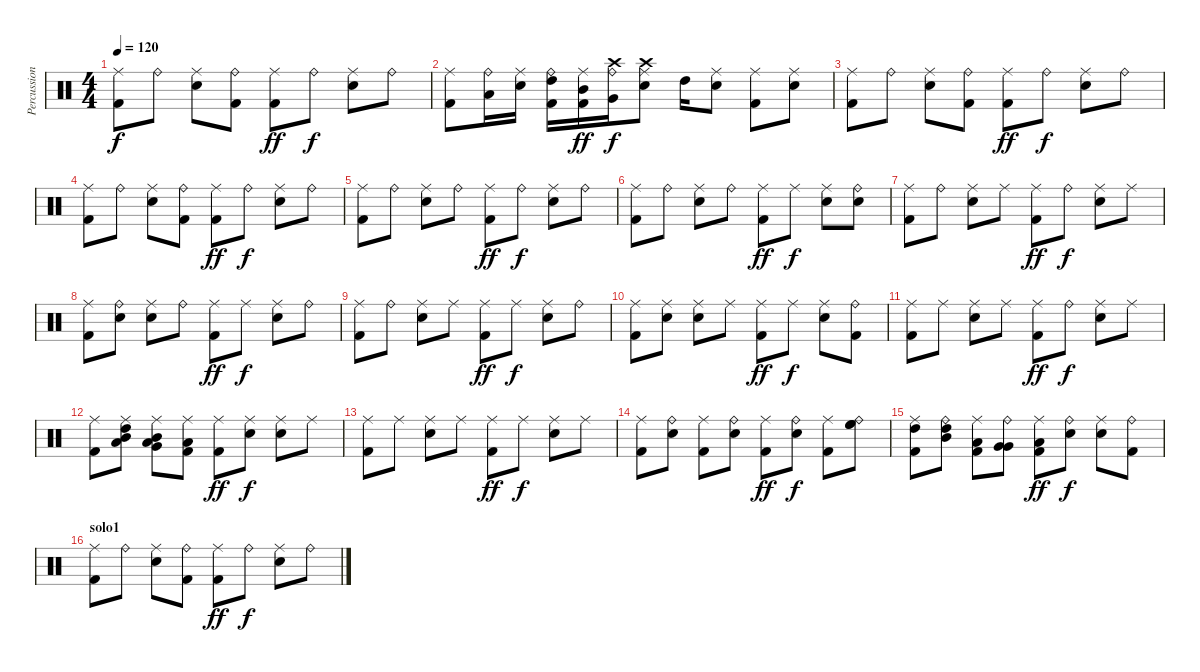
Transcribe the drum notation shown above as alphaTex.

\track ("Percussioni" "Percussion") {instrument percussion}
\staff {score}
\articulation defaults
\ts (4 4)
\tempo 120
\clef neutral
\ks c
("Kick (hit) 2" "Ride (middle)").8{dy f} "Ride (bell)".8 ("Electric Snare (hit)" "Ride (middle)").8 ("Kick (hit) 2" "Ride (bell)").8 ("Kick (hit) 2" "Ride (middle)").8{dy ff} "Ride (bell)".8{dy f} ("Electric Snare (hit)" "Ride (middle)").8 "Ride (bell)".8 |
("Kick (hit) 2" "Ride (middle)").8 ("Low Floor Tom (hit)" "Ride (bell)").16 ("Electric Snare (hit)" "Ride (middle)").16 ("High Tom (hit)" "Kick (hit) 2" "Ride (bell)").16 ("Mid Tom (hit)" "Kick (hit) 2" "Ride (middle)").16{dy ff} ("Very Low Tom (hit)" "Crash high (hit)" "Ride (bell)").16{dy f} ("Crash high (hit)" "Electric Snare (hit)" "Ride (middle)").8 "High Tom (hit)".16 ("Electric Snare (hit)" "Ride (middle)").8 ("Kick (hit) 2" "Ride (middle)").8 ("Electric Snare (hit)" "Ride (middle)").8 |
("Kick (hit) 2" "Ride (middle)").8 "Ride (bell)".8 ("Electric Snare (hit)" "Ride (middle)").8 ("Kick (hit) 2" "Ride (bell)").8 ("Kick (hit) 2" "Ride (middle)").8{dy ff} "Ride (bell)".8{dy f} ("Electric Snare (hit)" "Ride (middle)").8 "Ride (bell)".8 |
("Kick (hit) 2" "Ride (middle)").8 "Ride (bell)".8 ("Electric Snare (hit)" "Ride (middle)").8 ("Kick (hit) 2" "Ride (bell)").8 ("Kick (hit) 2" "Ride (middle)").8{dy ff} "Ride (bell)".8{dy f} ("Electric Snare (hit)" "Ride (middle)").8 "Ride (bell)".8 |
("Kick (hit) 2" "Ride (middle)").8 "Ride (bell)".8 ("Electric Snare (hit)" "Ride (middle)").8 "Ride (bell)".8 ("Kick (hit) 2" "Ride (middle)").8{dy ff} "Ride (bell)".8{dy f} ("Electric Snare (hit)" "Ride (middle)").8 "Ride (bell)".8 |
("Kick (hit) 2" "Ride (middle)").8 "Ride (bell)".8 ("Electric Snare (hit)" "Ride (middle)").8 "Ride (bell)".8 ("Kick (hit) 2" "Ride (middle)").8{dy ff} "Ride (middle)".8{dy f} ("Electric Snare (hit)" "Ride (middle)").8 ("Electric Snare (hit)" "Ride (bell)").8 |
("Kick (hit) 2" "Ride (middle)").8 "Ride (bell)".8 ("Electric Snare (hit)" "Ride (middle)").8 "Ride (middle)".8 ("Kick (hit) 2" "Ride (middle)").8{dy ff} "Ride (bell)".8{dy f} ("Electric Snare (hit)" "Ride (middle)").8 "Ride (middle)".8 |
("Kick (hit) 2" "Ride (middle)").8 ("Electric Snare (hit)" "Ride (bell)").8 ("Electric Snare (hit)" "Ride (middle)").8 "Ride (bell)".8 ("Kick (hit) 2" "Ride (middle)").8{dy ff} "Ride (middle)".8{dy f} ("Electric Snare (hit)" "Ride (middle)").8 "Ride (bell)".8 |
("Kick (hit) 2" "Ride (middle)").8 "Ride (bell)".8 ("Electric Snare (hit)" "Ride (middle)").8 "Ride (middle)".8 ("Kick (hit) 2" "Ride (middle)").8{dy ff} "Ride (middle)".8{dy f} ("Electric Snare (hit)" "Ride (middle)").8 "Ride (bell)".8 |
("Kick (hit) 2" "Ride (middle)").8 ("Electric Snare (hit)" "Ride (middle)").8 ("Electric Snare (hit)" "Ride (middle)").8 "Ride (middle)".8 ("Kick (hit) 2" "Ride (middle)").8{dy ff} "Ride (middle)".8{dy f} ("Electric Snare (hit)" "Ride (middle)").8 ("Kick (hit) 2" "Ride (bell)").8 |
("Kick (hit) 2" "Ride (middle)").8 "Ride (middle)".8 ("Electric Snare (hit)" "Ride (middle)").8 "Ride (middle)".8 ("Kick (hit) 2" "Ride (middle)").8{dy ff} "Ride (bell)".8{dy f} ("Electric Snare (hit)" "Ride (middle)").8 "Ride (middle)".8 |
("Kick (hit) 2" "Ride (middle)").8 ("Low Tom (hit)" "Mid Tom (hit)" "High Tom (hit)" "Ride (middle)").8 ("Very Low Tom (hit)" "Low Tom (hit)" "Mid Tom (hit)" "Ride (middle)").8 ("Kick (hit) 2" "Low Floor Tom (hit)" "Ride (middle)").8{bd 480} ("Kick (hit) 2" "Ride (middle)").8{bd 480 dy ff} ("Electric Snare (hit)" "Ride (middle)").8{dy f} ("Electric Snare (hit)" "Ride (middle)").8 "Ride (middle)".8 |
("Kick (hit) 2" "Ride (middle)").8 "Ride (middle)".8 ("Electric Snare (hit)" "Ride (middle)").8 "Ride (middle)".8 ("Kick (hit) 2" "Ride (middle)").8{dy ff} "Ride (middle)".8{dy f} ("Electric Snare (hit)" "Ride (middle)").8 "Ride (middle)".8 |
("Kick (hit) 2" "Ride (middle)").8 ("Electric Snare (hit)" "Ride (bell)").8 ("Kick (hit) 2" "Ride (middle)").8 ("Electric Snare (hit)" "Ride (bell)").8 ("Kick (hit) 2" "Ride (middle)").8{dy ff} ("Electric Snare (hit)" "Ride (bell)").8{dy f} ("Kick (hit) 2" "Ride (middle)").8 ("High Floor Tom (hit)" "High Floor Tom (hit)" "Ride (bell)").8 |
("High Tom (hit)" "Kick (hit) 2" "Ride (middle)").8 ("Mid Tom (hit)" "High Tom (hit)" "Ride (bell)").8 ("Low Tom (hit)" "Kick (hit) 2" "Ride (middle)").8 ("Very Low Tom (hit)" "Very Low Tom (hit)" "Ride (bell)").8 ("Low Floor Tom (hit)" "Kick (hit) 2" "Ride (middle)").8{dy ff} ("Electric Snare (hit)" "Ride (bell)").8{dy f} ("Electric Snare (hit)" "Ride (middle)").8 ("Kick (hit) 2" "Ride (bell)").8 |
\section ("" "solo1")
("Kick (hit) 2" "Ride (middle)").8 "Ride (bell)".8 ("Electric Snare (hit)" "Ride (middle)").8 ("Kick (hit) 2" "Ride (bell)").8 ("Kick (hit) 2" "Ride (middle)").8{dy ff} "Ride (bell)".8{dy f} ("Electric Snare (hit)" "Ride (middle)").8 "Ride (bell)".8
